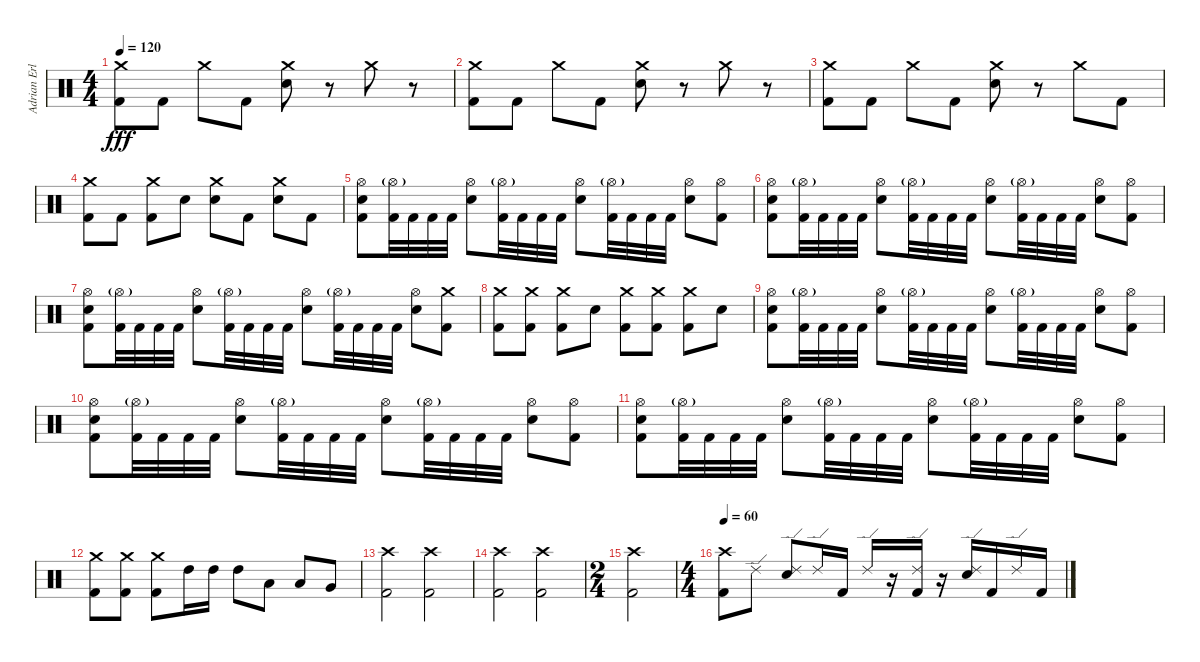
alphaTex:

\track ("Adrian Erlandsson" "Adrian Erl") {instrument percussion}
\staff {score}
\articulation defaults
\ts (4 4)
\tempo 120
\clef neutral
\ks c
("Crash medium (hit)" "Kick (hit) 2").8{dy fff} "Kick (hit) 2".8 "Crash medium (hit)".8 "Kick (hit) 2".8 ("Crash medium (hit)" "Electric Snare (hit)").8 r.8 "Crash medium (hit)".8 r.8 |
("Crash medium (hit)" "Kick (hit) 2").8 "Kick (hit) 2".8 "Crash medium (hit)".8 "Kick (hit) 2".8 ("Crash medium (hit)" "Electric Snare (hit)").8 r.8 "Crash medium (hit)".8 r.8 |
("Crash medium (hit)" "Kick (hit) 2").8 "Kick (hit) 2".8 "Crash medium (hit)".8 "Kick (hit) 2".8 ("Crash medium (hit)" "Electric Snare (hit)").8 r.8 "Crash medium (hit)".8 "Kick (hit) 2".8 |
("Crash medium (hit)" "Kick (hit) 2").8 "Kick (hit) 2".8 ("Crash medium (hit)" "Kick (hit) 2").8 "Electric Snare (hit)".8 ("Crash medium (hit)" "Electric Snare (hit)").8 "Kick (hit) 2".8 ("Crash medium (hit)" "Electric Snare (hit)").8 "Kick (hit) 2".8 |
("Hi-Hat (open)" "Electric Snare (hit)" "Kick (hit) 2").8 ("Hi-Hat (open)"{g} "Kick (hit) 2").32 "Kick (hit) 2".32 "Kick (hit) 2".32 "Kick (hit) 2".32 ("Hi-Hat (open)" "Electric Snare (hit)").8 ("Hi-Hat (open)"{g} "Kick (hit) 2").32 "Kick (hit) 2".32 "Kick (hit) 2".32 "Kick (hit) 2".32 ("Hi-Hat (open)" "Electric Snare (hit)").8 ("Hi-Hat (open)"{g} "Kick (hit) 2").32 "Kick (hit) 2".32 "Kick (hit) 2".32 "Kick (hit) 2".32 ("Hi-Hat (open)" "Electric Snare (hit)").8 ("Hi-Hat (open)" "Kick (hit) 2").8 |
("Hi-Hat (open)" "Electric Snare (hit)" "Kick (hit) 2").8 ("Hi-Hat (open)"{g} "Kick (hit) 2").32 "Kick (hit) 2".32 "Kick (hit) 2".32 "Kick (hit) 2".32 ("Hi-Hat (open)" "Electric Snare (hit)").8 ("Hi-Hat (open)"{g} "Kick (hit) 2").32 "Kick (hit) 2".32 "Kick (hit) 2".32 "Kick (hit) 2".32 ("Hi-Hat (open)" "Electric Snare (hit)").8 ("Hi-Hat (open)"{g} "Kick (hit) 2").32 "Kick (hit) 2".32 "Kick (hit) 2".32 "Kick (hit) 2".32 ("Hi-Hat (open)" "Electric Snare (hit)").8 ("Hi-Hat (open)" "Kick (hit) 2").8 |
("Hi-Hat (open)" "Electric Snare (hit)" "Kick (hit) 2").8 ("Hi-Hat (open)"{g} "Kick (hit) 2").32 "Kick (hit) 2".32 "Kick (hit) 2".32 "Kick (hit) 2".32 ("Hi-Hat (open)" "Electric Snare (hit)").8 ("Hi-Hat (open)"{g} "Kick (hit) 2").32 "Kick (hit) 2".32 "Kick (hit) 2".32 "Kick (hit) 2".32 ("Hi-Hat (open)" "Electric Snare (hit)").8 ("Hi-Hat (open)"{g} "Kick (hit) 2").32 "Kick (hit) 2".32 "Kick (hit) 2".32 "Kick (hit) 2".32 ("Hi-Hat (open)" "Electric Snare (hit)").8 ("Crash medium (hit)" "Kick (hit) 2").8 |
("Crash medium (hit)" "Kick (hit) 2").8 ("Crash medium (hit)" "Kick (hit) 2").8 ("Crash medium (hit)" "Kick (hit) 2").8 "Electric Snare (hit)".8 ("Crash medium (hit)" "Kick (hit) 2").8 ("Crash medium (hit)" "Kick (hit) 2").8 ("Crash medium (hit)" "Kick (hit) 2").8 "Electric Snare (hit)".8 |
("Hi-Hat (open)" "Electric Snare (hit)" "Kick (hit) 2").8 ("Hi-Hat (open)"{g} "Kick (hit) 2").32 "Kick (hit) 2".32 "Kick (hit) 2".32 "Kick (hit) 2".32 ("Hi-Hat (open)" "Electric Snare (hit)").8 ("Hi-Hat (open)"{g} "Kick (hit) 2").32 "Kick (hit) 2".32 "Kick (hit) 2".32 "Kick (hit) 2".32 ("Hi-Hat (open)" "Electric Snare (hit)").8 ("Hi-Hat (open)"{g} "Kick (hit) 2").32 "Kick (hit) 2".32 "Kick (hit) 2".32 "Kick (hit) 2".32 ("Hi-Hat (open)" "Electric Snare (hit)").8 ("Hi-Hat (open)" "Kick (hit) 2").8 |
("Hi-Hat (open)" "Electric Snare (hit)" "Kick (hit) 2").8 ("Hi-Hat (open)"{g} "Kick (hit) 2").32 "Kick (hit) 2".32 "Kick (hit) 2".32 "Kick (hit) 2".32 ("Hi-Hat (open)" "Electric Snare (hit)").8 ("Hi-Hat (open)"{g} "Kick (hit) 2").32 "Kick (hit) 2".32 "Kick (hit) 2".32 "Kick (hit) 2".32 ("Hi-Hat (open)" "Electric Snare (hit)").8 ("Hi-Hat (open)"{g} "Kick (hit) 2").32 "Kick (hit) 2".32 "Kick (hit) 2".32 "Kick (hit) 2".32 ("Hi-Hat (open)" "Electric Snare (hit)").8 ("Hi-Hat (open)" "Kick (hit) 2").8 |
("Hi-Hat (open)" "Electric Snare (hit)" "Kick (hit) 2").8 ("Hi-Hat (open)"{g} "Kick (hit) 2").32 "Kick (hit) 2".32 "Kick (hit) 2".32 "Kick (hit) 2".32 ("Hi-Hat (open)" "Electric Snare (hit)").8 ("Hi-Hat (open)"{g} "Kick (hit) 2").32 "Kick (hit) 2".32 "Kick (hit) 2".32 "Kick (hit) 2".32 ("Hi-Hat (open)" "Electric Snare (hit)").8 ("Hi-Hat (open)"{g} "Kick (hit) 2").32 "Kick (hit) 2".32 "Kick (hit) 2".32 "Kick (hit) 2".32 ("Hi-Hat (open)" "Electric Snare (hit)").8 ("Hi-Hat (open)" "Kick (hit) 2").8 |
("Crash medium (hit)" "Kick (hit) 2").8 ("Crash medium (hit)" "Kick (hit) 2").8 ("Crash medium (hit)" "Kick (hit) 2").8 "High Tom (hit)".16 "High Tom (hit)".16 "High Tom (hit)".8 "Low Tom (hit)".8 "Low Tom (hit)".8 "Very Low Tom (hit)".8 |
("Crash high (hit)" "Kick (hit) 2").2 ("Crash high (hit)" "Kick (hit) 2").2 |
("Crash high (hit)" "Kick (hit) 2").2 ("Crash high (hit)" "Kick (hit) 2").2 |
\ts (2 4)
("Crash high (hit)" "Kick (hit) 2").2 |
\ts (4 4)
\tempo 60
("Crash high (hit)" "Kick (hit) 2").8 "Ride (edge) 2".8 ("Ride (edge) 2" "Electric Snare (hit)").8 "Ride (edge) 2".16 "Kick (hit) 2".16 "Ride (edge) 2".16 r.16 ("Ride (edge) 2" "Kick (hit) 2").16 r.16 ("Ride (edge) 2" "Electric Snare (hit)").16 "Kick (hit) 2".16 "Ride (edge) 2".16 "Kick (hit) 2".16
